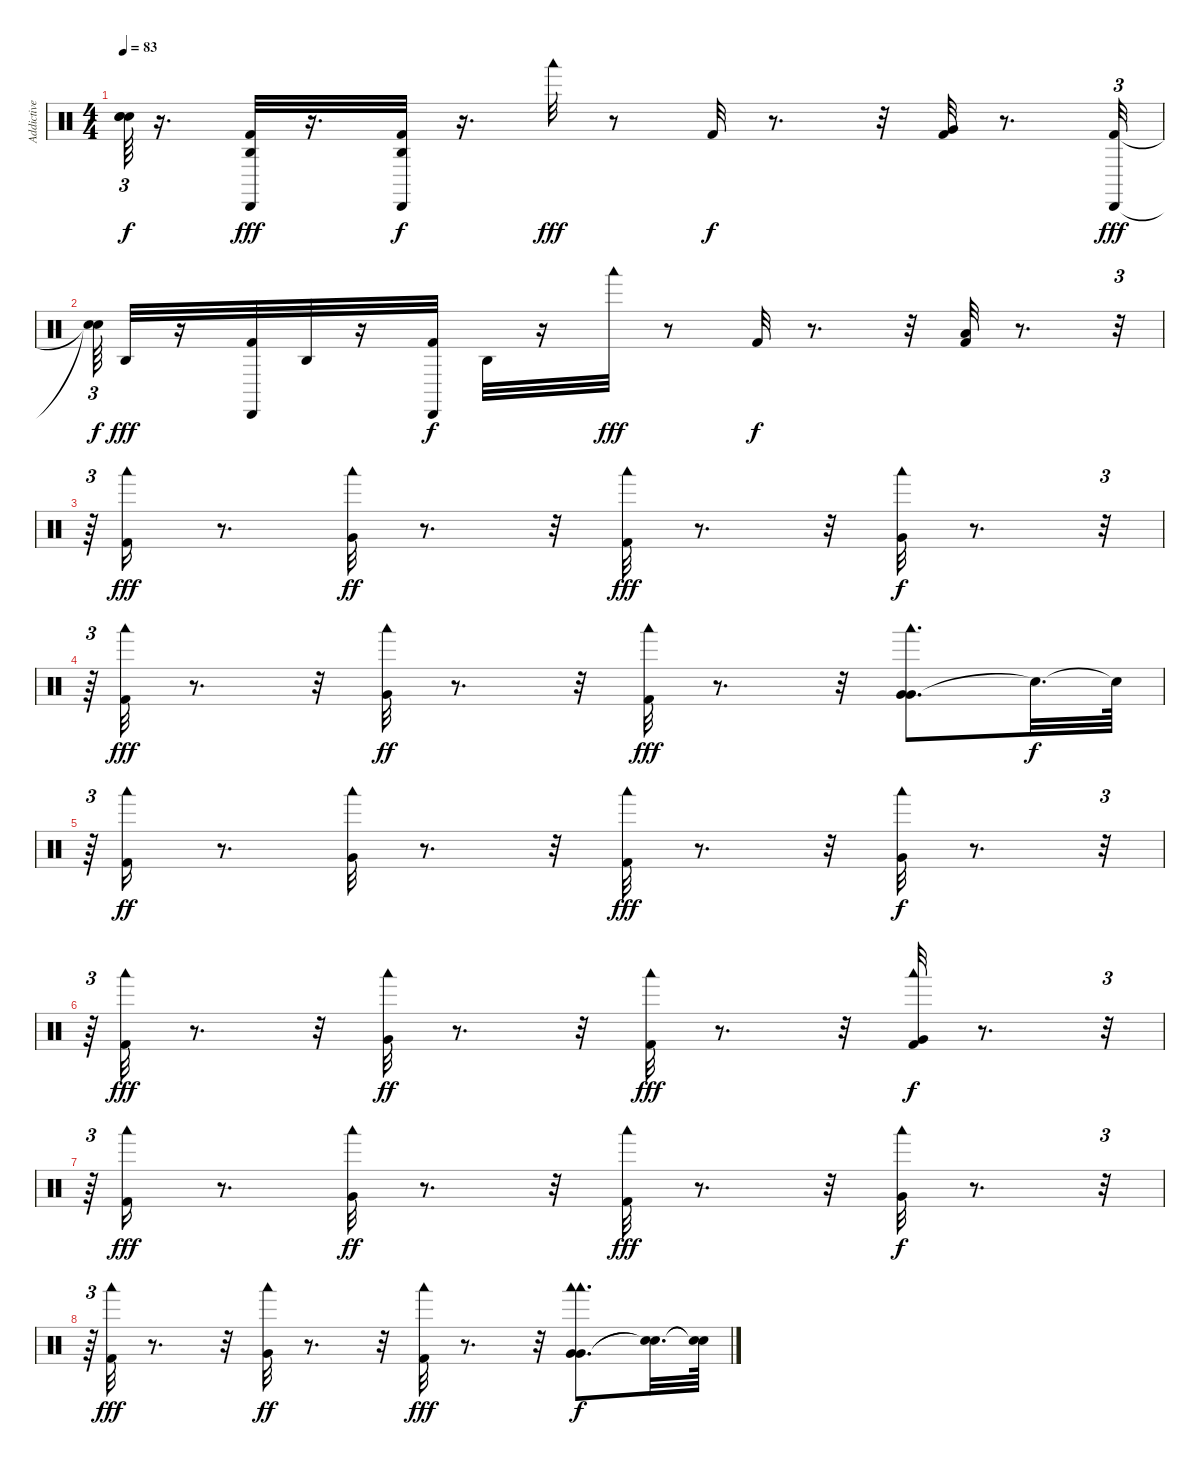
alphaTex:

\track ("Addictive Drums 2 01" "Addictive ") {instrument percussion}
\staff {score}
\articulation defaults
\ts (4 4)
\tempo 83
\clef neutral
\ks c
("Snare (hit)"{t} "Snare (hit)"{t} "Snare (hit)"{t}).64{tu (3 2) dy f} r.16{d} ("Kick (hit) 2" "Cabasa (hit)" "Agogo high (hit)").32{dy fff} r.16{d} ("Cabasa (hit)" "Kick (hit) 2" "Agogo high (hit)").32{dy f} r.16{d} "Woodblock low (hit)".32{dy fff} r.8 "Kick (hit) 2".32{dy f} r.8{d} r.32 ("Kick (hit) 2" "Very Low Tom (hit)").32 r.8{d} ("Kick (hit) 2" "Cabasa (hit)").32{tu (3 2) dy fff} |
("Snare (hit)"{t} "Snare (hit)"{t}).64{tu (3 2) dy f} "Agogo high (hit)".32{dy fff} r.16 ("Kick (hit) 2" "Cabasa (hit)").32 "Agogo high (hit)".32 r.16 ("Cabasa (hit)" "Kick (hit) 2").32{dy f} "Agogo high (hit)".32 r.16 "Woodblock low (hit)".32{dy fff} r.8 "Kick (hit) 2".32{dy f} r.8{d} r.32 ("Kick (hit) 2" "Low Floor Tom (hit)").32 r.8{d} r.32{tu (3 2)} |
r.64{tu (3 2)} ("Woodblock low (hit)" "Kick (hit) 2").16{dy fff} r.8{d} ("Woodblock low (hit)" "Very Low Tom (hit)").32{dy ff} r.8{d} r.32 ("Kick (hit) 2" "Woodblock low (hit)").32{dy fff} r.8{d} r.32 ("Very Low Tom (hit)" "Woodblock low (hit)").32{dy f} r.8{d} r.32{tu (3 2)} |
r.64{tu (3 2)} ("Woodblock low (hit)" "Kick (hit) 2").32{dy fff} r.8{d} r.32 ("Very Low Tom (hit)" "Woodblock low (hit)").32{dy ff} r.8{d} r.32 ("Kick (hit) 2" "Woodblock low (hit)").32{dy fff} r.8{d} r.32 ("Very Low Tom (hit)" "Woodblock low (hit)" "Very Low Tom (hit)").8{d} "Snare (hit)"{t}.32{d dy f} "Snare (hit)"{t}.64 |
r.64{tu (3 2)} ("Woodblock low (hit)" "Kick (hit) 2").16{dy ff} r.8{d} ("Woodblock low (hit)" "Very Low Tom (hit)").32 r.8{d} r.32 ("Kick (hit) 2" "Woodblock low (hit)").32{dy fff} r.8{d} r.32 ("Very Low Tom (hit)" "Woodblock low (hit)").32{dy f} r.8{d} r.32{tu (3 2)} |
r.64{tu (3 2)} ("Woodblock low (hit)" "Kick (hit) 2").32{dy fff} r.8{d} r.32 ("Very Low Tom (hit)" "Woodblock low (hit)").32{dy ff} r.8{d} r.32 ("Kick (hit) 2" "Woodblock low (hit)").32{dy fff} r.8{d} r.32 ("Woodblock low (hit)" "Very Low Tom (hit)" "Kick (hit) 2").32{dy f} r.8{d} r.32{tu (3 2)} |
r.64{tu (3 2)} ("Woodblock low (hit)" "Kick (hit) 2").16{dy fff} r.8{d} ("Woodblock low (hit)" "Very Low Tom (hit)").32{dy ff} r.8{d} r.32 ("Kick (hit) 2" "Woodblock low (hit)").32{dy fff} r.8{d} r.32 ("Very Low Tom (hit)" "Woodblock low (hit)").32{dy f} r.8{d} r.32{tu (3 2)} |
r.64{tu (3 2)} ("Woodblock low (hit)" "Kick (hit) 2").32{dy fff} r.8{d} r.32 ("Very Low Tom (hit)" "Woodblock low (hit)").32{dy ff} r.8{d} r.32 ("Kick (hit) 2" "Woodblock low (hit)").32{dy fff} r.8{d} r.32 ("Very Low Tom (hit)" "Very Low Tom (hit)" "Woodblock low (hit)" "Woodblock low (hit)").8{d dy f} ("Snare (hit)"{t} "Snare (hit)"{t}).32{d} ("Snare (hit)"{t} "Snare (hit)"{t}).64
